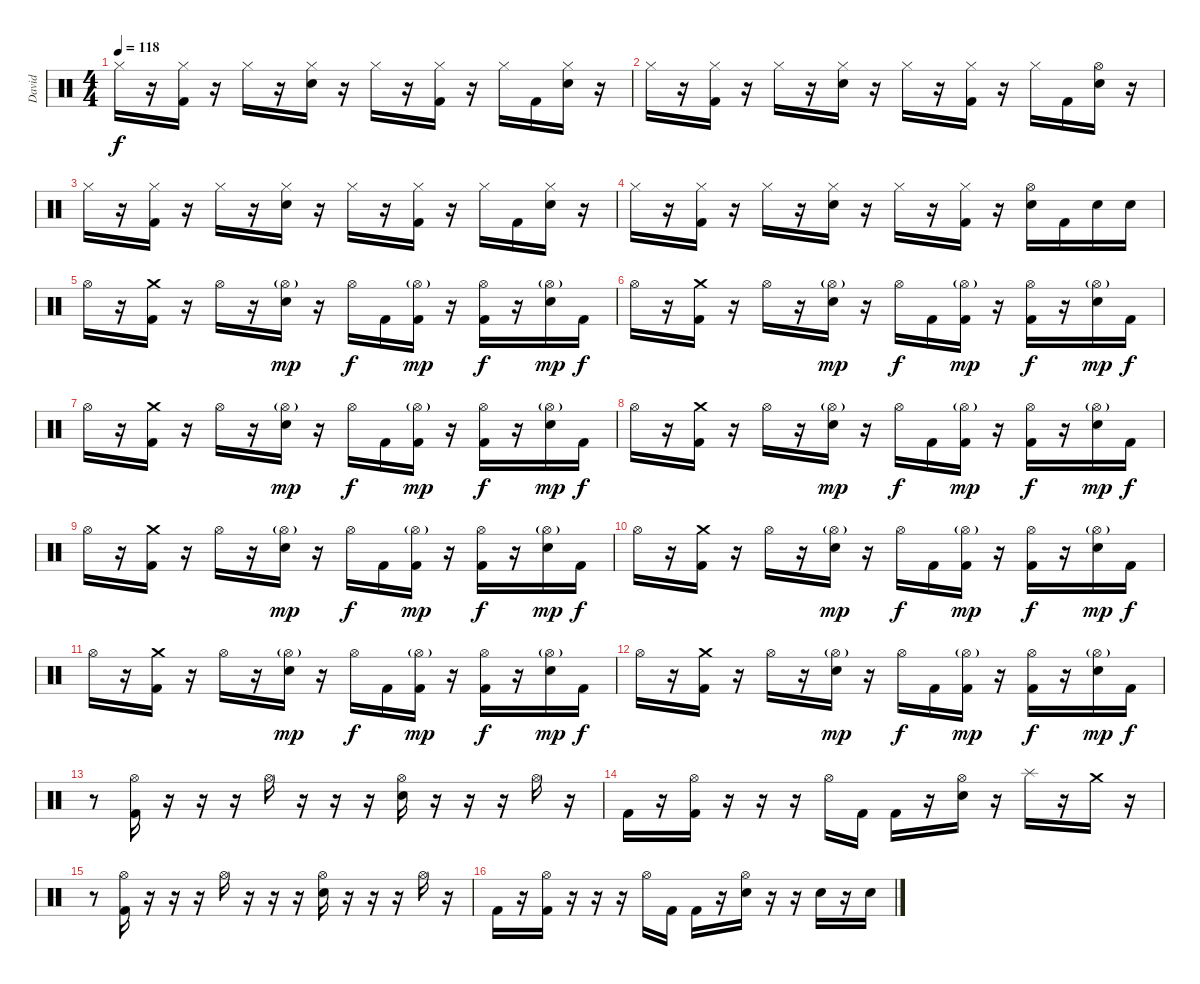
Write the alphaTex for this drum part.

\track ("David" "David") {instrument percussion}
\staff {score}
\articulation defaults
\ts (4 4)
\tempo 118
\clef neutral
\ks c "Hi-Hat (closed)".16{dy f}
r.16 ("Hi-Hat (closed)" "Kick (hit) 2").16 r.16 "Hi-Hat (closed)".16 r.16 ("Hi-Hat (closed)" "Electric Snare (hit)").16 r.16 "Hi-Hat (closed)".16 r.16 ("Hi-Hat (closed)" "Kick (hit) 2").16 r.16 "Hi-Hat (closed)".16 "Kick (hit) 2".16 ("Hi-Hat (closed)" "Electric Snare (hit)").16 r.16 |
"Hi-Hat (closed)".16 r.16 ("Hi-Hat (closed)" "Kick (hit) 2").16 r.16 "Hi-Hat (closed)".16 r.16 ("Hi-Hat (closed)" "Electric Snare (hit)").16 r.16 "Hi-Hat (closed)".16 r.16 ("Hi-Hat (closed)" "Kick (hit) 2").16 r.16 "Hi-Hat (closed)".16 "Kick (hit) 2".16 ("Hi-Hat (open)" "Electric Snare (hit)").16 r.16 |
"Hi-Hat (closed)".16 r.16 ("Hi-Hat (closed)" "Kick (hit) 2").16 r.16 "Hi-Hat (closed)".16 r.16 ("Hi-Hat (closed)" "Electric Snare (hit)").16 r.16 "Hi-Hat (closed)".16 r.16 ("Hi-Hat (closed)" "Kick (hit) 2").16 r.16 "Hi-Hat (closed)".16 "Kick (hit) 2".16 ("Hi-Hat (closed)" "Electric Snare (hit)").16 r.16 |
"Hi-Hat (closed)".16 r.16 ("Hi-Hat (closed)" "Kick (hit) 2").16 r.16 "Hi-Hat (closed)".16 r.16 ("Hi-Hat (closed)" "Electric Snare (hit)").16 r.16 "Hi-Hat (closed)".16 r.16 ("Hi-Hat (closed)" "Kick (hit) 2").16 r.16 ("Hi-Hat (open)" "Electric Snare (hit)").16 "Kick (hit) 2".16 "Electric Snare (hit)".16 "Electric Snare (hit)".16 |
"Hi-Hat (open)".16 r.16 ("Crash medium (hit)" "Kick (hit) 2").16 r.16 "Hi-Hat (open)".16 r.16 ("Hi-Hat (open)"{g} "Electric Snare (hit)").16{dy mp} r.16 "Hi-Hat (open)".16{dy f} "Kick (hit) 2".16 ("Hi-Hat (open)"{g} "Kick (hit) 2").16{dy mp} r.16 ("Hi-Hat (open)" "Kick (hit) 2").16{dy f} r.16 ("Hi-Hat (open)"{g} "Electric Snare (hit)").16{dy mp} "Kick (hit) 2".16{dy f} |
"Hi-Hat (open)".16 r.16 ("Crash medium (hit)" "Kick (hit) 2").16 r.16 "Hi-Hat (open)".16 r.16 ("Hi-Hat (open)"{g} "Electric Snare (hit)").16{dy mp} r.16 "Hi-Hat (open)".16{dy f} "Kick (hit) 2".16 ("Hi-Hat (open)"{g} "Kick (hit) 2").16{dy mp} r.16 ("Hi-Hat (open)" "Kick (hit) 2").16{dy f} r.16 ("Hi-Hat (open)"{g} "Electric Snare (hit)").16{dy mp} "Kick (hit) 2".16{dy f} |
"Hi-Hat (open)".16 r.16 ("Crash medium (hit)" "Kick (hit) 2").16 r.16 "Hi-Hat (open)".16 r.16 ("Hi-Hat (open)"{g} "Electric Snare (hit)").16{dy mp} r.16 "Hi-Hat (open)".16{dy f} "Kick (hit) 2".16 ("Hi-Hat (open)"{g} "Kick (hit) 2").16{dy mp} r.16 ("Hi-Hat (open)" "Kick (hit) 2").16{dy f} r.16 ("Hi-Hat (open)"{g} "Electric Snare (hit)").16{dy mp} "Kick (hit) 2".16{dy f} |
"Hi-Hat (open)".16 r.16 ("Crash medium (hit)" "Kick (hit) 2").16 r.16 "Hi-Hat (open)".16 r.16 ("Hi-Hat (open)"{g} "Electric Snare (hit)").16{dy mp} r.16 "Hi-Hat (open)".16{dy f} "Kick (hit) 2".16 ("Hi-Hat (open)"{g} "Kick (hit) 2").16{dy mp} r.16 ("Hi-Hat (open)" "Kick (hit) 2").16{dy f} r.16 ("Hi-Hat (open)"{g} "Electric Snare (hit)").16{dy mp} "Kick (hit) 2".16{dy f} |
"Hi-Hat (open)".16 r.16 ("Crash medium (hit)" "Kick (hit) 2").16 r.16 "Hi-Hat (open)".16 r.16 ("Hi-Hat (open)"{g} "Electric Snare (hit)").16{dy mp} r.16 "Hi-Hat (open)".16{dy f} "Kick (hit) 2".16 ("Hi-Hat (open)"{g} "Kick (hit) 2").16{dy mp} r.16 ("Hi-Hat (open)" "Kick (hit) 2").16{dy f} r.16 ("Hi-Hat (open)"{g} "Electric Snare (hit)").16{dy mp} "Kick (hit) 2".16{dy f} |
"Hi-Hat (open)".16 r.16 ("Crash medium (hit)" "Kick (hit) 2").16 r.16 "Hi-Hat (open)".16 r.16 ("Hi-Hat (open)"{g} "Electric Snare (hit)").16{dy mp} r.16 "Hi-Hat (open)".16{dy f} "Kick (hit) 2".16 ("Hi-Hat (open)"{g} "Kick (hit) 2").16{dy mp} r.16 ("Hi-Hat (open)" "Kick (hit) 2").16{dy f} r.16 ("Hi-Hat (open)"{g} "Electric Snare (hit)").16{dy mp} "Kick (hit) 2".16{dy f} |
"Hi-Hat (open)".16 r.16 ("Crash medium (hit)" "Kick (hit) 2").16 r.16 "Hi-Hat (open)".16 r.16 ("Hi-Hat (open)"{g} "Electric Snare (hit)").16{dy mp} r.16 "Hi-Hat (open)".16{dy f} "Kick (hit) 2".16 ("Hi-Hat (open)"{g} "Kick (hit) 2").16{dy mp} r.16 ("Hi-Hat (open)" "Kick (hit) 2").16{dy f} r.16 ("Hi-Hat (open)"{g} "Electric Snare (hit)").16{dy mp} "Kick (hit) 2".16{dy f} |
"Hi-Hat (open)".16 r.16 ("Crash medium (hit)" "Kick (hit) 2").16 r.16 "Hi-Hat (open)".16 r.16 ("Hi-Hat (open)"{g} "Electric Snare (hit)").16{dy mp} r.16 "Hi-Hat (open)".16{dy f} "Kick (hit) 2".16 ("Hi-Hat (open)"{g} "Kick (hit) 2").16{dy mp} r.16 ("Hi-Hat (open)" "Kick (hit) 2").16{dy f} r.16 ("Hi-Hat (open)"{g} "Electric Snare (hit)").16{dy mp} "Kick (hit) 2".16{dy f} |
r.8 ("Hi-Hat (open)" "Kick (hit) 2").16 r.16 r.16 r.16 "Hi-Hat (open)".16 r.16 r.16 r.16 ("Hi-Hat (open)" "Electric Snare (hit)").16 r.16 r.16 r.16 "Hi-Hat (open)".16 r.16 |
"Kick (hit) 2".16 r.16 ("Hi-Hat (open)" "Kick (hit) 2").16 r.16 r.16 r.16 "Hi-Hat (open)".16 "Kick (hit) 2".16 "Kick (hit) 2".16 r.16 ("Hi-Hat (open)" "Electric Snare (hit)").16 r.16 "Splash (hit)".16 r.16 "Crash medium (hit)".16 r.16 |
r.8 ("Hi-Hat (open)" "Kick (hit) 2").16 r.16 r.16 r.16 "Hi-Hat (open)".16 r.16 r.16 r.16 ("Hi-Hat (open)" "Electric Snare (hit)").16 r.16 r.16 r.16 "Hi-Hat (open)".16 r.16 |
"Kick (hit) 2".16 r.16 ("Hi-Hat (open)" "Kick (hit) 2").16 r.16 r.16 r.16 "Hi-Hat (open)".16 "Kick (hit) 2".16 "Kick (hit) 2".16 r.16 ("Hi-Hat (open)" "Electric Snare (hit)").16 r.16 r.16 "Electric Snare (hit)".16 r.16 "Electric Snare (hit)".16
